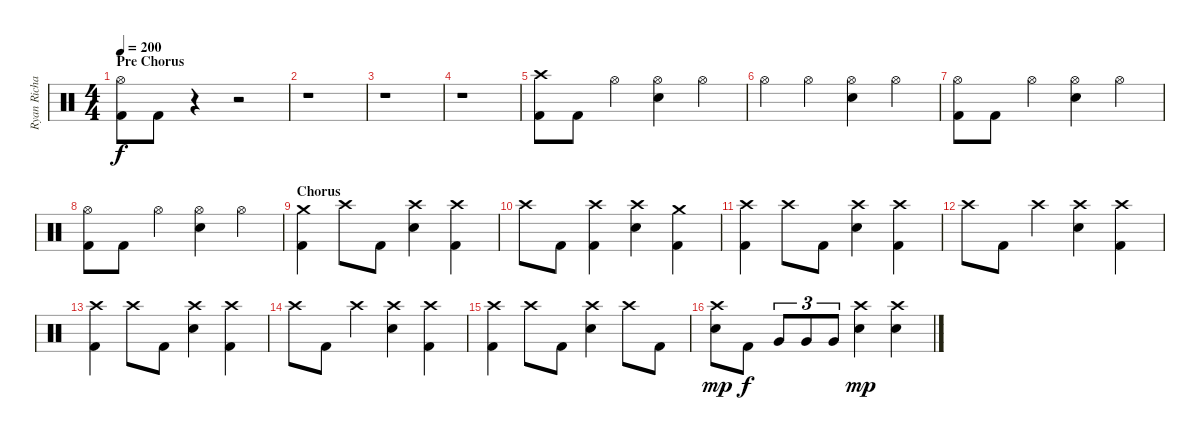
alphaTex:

\track ("Ryan Richards" "Ryan Richa") {instrument percussion}
\staff {score}
\articulation defaults
\ts (4 4)
\section ("" "Pre Chorus")
\tempo 200
\clef neutral
\ks c
("Hi-Hat (open)" "Kick (hit) 2").8{dy f} "Kick (hit) 2".8 r.4 r.2 |
r.1 |
r.1 |
r.1 |
("Crash high (hit)" "Kick (hit) 2").8 "Kick (hit) 2".8 "Hi-Hat (open)".4 ("Hi-Hat (open)" "Electric Snare (hit)").4 "Hi-Hat (open)".4 |
"Hi-Hat (open)".4 "Hi-Hat (open)".4 ("Hi-Hat (open)" "Electric Snare (hit)").4 "Hi-Hat (open)".4 |
("Hi-Hat (open)" "Kick (hit) 2").8 "Kick (hit) 2".8 "Hi-Hat (open)".4 ("Hi-Hat (open)" "Electric Snare (hit)").4 "Hi-Hat (open)".4 |
("Hi-Hat (open)" "Kick (hit) 2").8 "Kick (hit) 2".8 "Hi-Hat (open)".4 ("Hi-Hat (open)" "Electric Snare (hit)").4 "Hi-Hat (open)".4 |
\section ("" "Chorus")
("Crash medium (hit)" "Kick (hit) 2").4 "Crash high (hit)".8 "Kick (hit) 2".8 ("Crash high (hit)" "Electric Snare (hit)").4 ("Crash high (hit)" "Kick (hit) 2").4 |
"Crash high (hit)".8 "Kick (hit) 2".8 ("Crash high (hit)" "Kick (hit) 2").4 ("Crash high (hit)" "Electric Snare (hit)").4 ("Crash medium (hit)" "Kick (hit) 2").4 |
("Crash high (hit)" "Kick (hit) 2").4 "Crash high (hit)".8 "Kick (hit) 2".8 ("Crash high (hit)" "Electric Snare (hit)").4 ("Crash high (hit)" "Kick (hit) 2").4 |
"Crash high (hit)".8 "Kick (hit) 2".8 "Crash high (hit)".4 ("Crash high (hit)" "Electric Snare (hit)").4 ("Crash high (hit)" "Kick (hit) 2").4 |
("Crash high (hit)" "Kick (hit) 2").4 "Crash high (hit)".8 "Kick (hit) 2".8 ("Crash high (hit)" "Electric Snare (hit)").4 ("Crash high (hit)" "Kick (hit) 2").4 |
"Crash high (hit)".8 "Kick (hit) 2".8 "Crash high (hit)".4 ("Crash high (hit)" "Electric Snare (hit)").4 ("Crash high (hit)" "Kick (hit) 2").4 |
("Crash high (hit)" "Kick (hit) 2").4 "Crash high (hit)".8 "Kick (hit) 2".8 ("Crash high (hit)" "Electric Snare (hit)").4 "Crash high (hit)".8 "Kick (hit) 2".8 |
("Crash high (hit)" "Electric Snare (hit)").8{dy mp} "Kick (hit) 2".8{dy f} "Very Low Tom (hit)".8{tu (3 2)} "Very Low Tom (hit)".8{tu (3 2)} "Very Low Tom (hit)".8{tu (3 2)} ("Crash high (hit)" "Electric Snare (hit)").4{dy mp} ("Crash high (hit)" "Electric Snare (hit)").4
